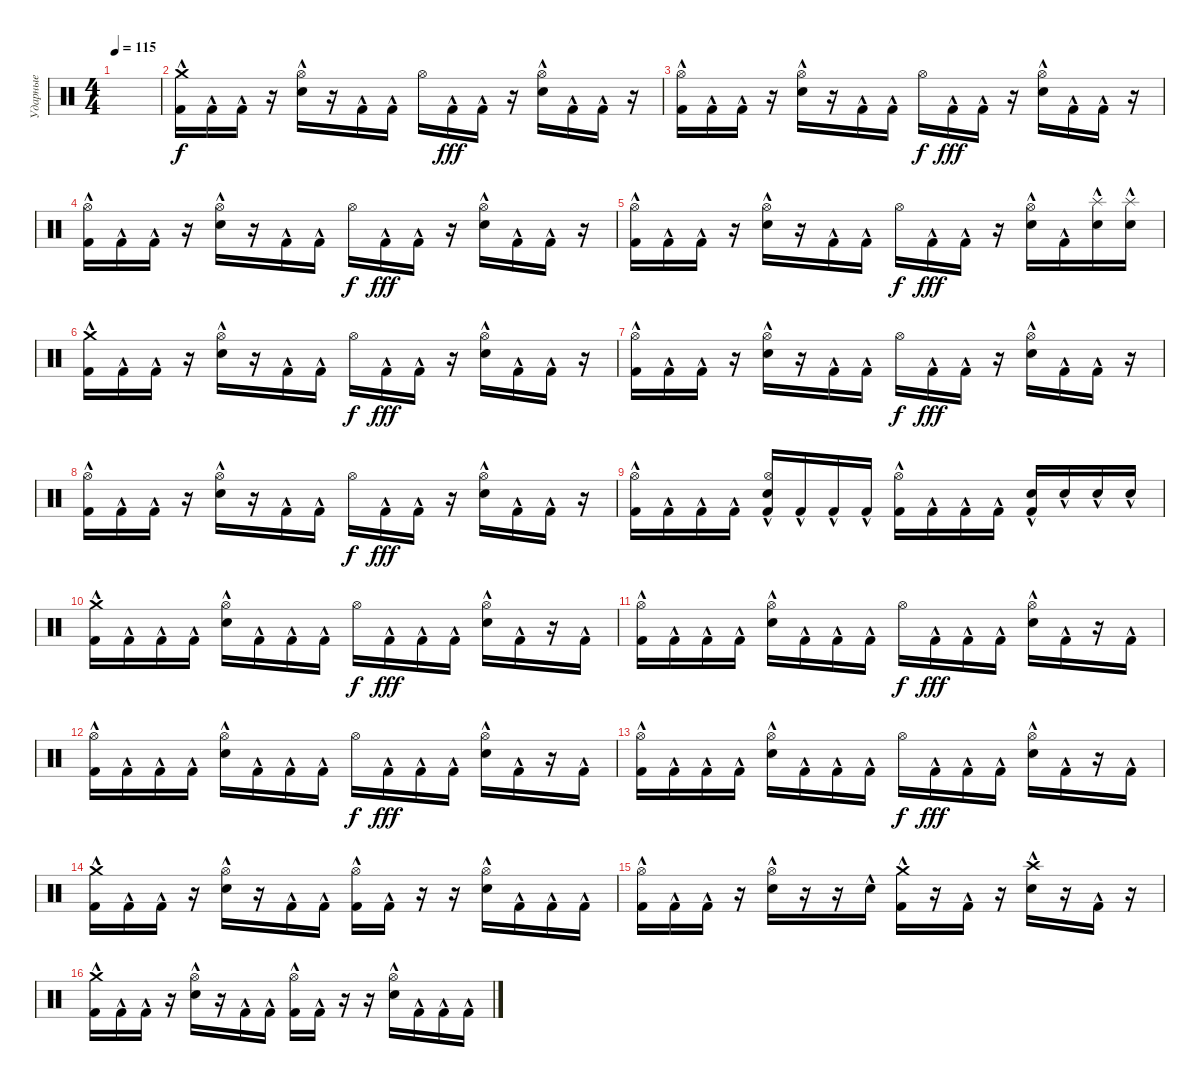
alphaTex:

\track ("Ударные" "Ударные") {instrument percussion}
\staff
\articulation defaults
\ts (4 4)
\tempo 115
\clef neutral
\ks c
|
("Crash medium (hit)" "Kick (hit) 2"{hac}).16 "Kick (hit) 2"{hac}.16 "Kick (hit) 2"{hac}.16 r.16 ("Hi-Hat (open)" "Snare (hit) 2"{hac}).16 r.16 "Kick (hit) 2"{hac}.16 "Kick (hit) 2"{hac}.16 "Hi-Hat (open)".16{dy f} "Kick (hit) 2"{hac}.16{dy fff} "Kick (hit) 2"{hac}.16 r.16 ("Hi-Hat (open)" "Snare (hit) 2"{hac}).16 "Kick (hit) 2"{hac}.16 "Kick (hit) 2"{hac}.16 r.16 |
("Hi-Hat (open)" "Kick (hit) 2"{hac}).16 "Kick (hit) 2"{hac}.16 "Kick (hit) 2"{hac}.16 r.16 ("Hi-Hat (open)" "Snare (hit) 2"{hac}).16 r.16 "Kick (hit) 2"{hac}.16 "Kick (hit) 2"{hac}.16 "Hi-Hat (open)".16{dy f} "Kick (hit) 2"{hac}.16{dy fff} "Kick (hit) 2"{hac}.16 r.16 ("Hi-Hat (open)" "Snare (hit) 2"{hac}).16 "Kick (hit) 2"{hac}.16 "Kick (hit) 2"{hac}.16 r.16 |
("Hi-Hat (open)" "Kick (hit) 2"{hac}).16 "Kick (hit) 2"{hac}.16 "Kick (hit) 2"{hac}.16 r.16 ("Hi-Hat (open)" "Snare (hit) 2"{hac}).16 r.16 "Kick (hit) 2"{hac}.16 "Kick (hit) 2"{hac}.16 "Hi-Hat (open)".16{dy f} "Kick (hit) 2"{hac}.16{dy fff} "Kick (hit) 2"{hac}.16 r.16 ("Hi-Hat (open)" "Snare (hit) 2"{hac}).16 "Kick (hit) 2"{hac}.16 "Kick (hit) 2"{hac}.16 r.16 |
("Hi-Hat (open)" "Kick (hit) 2"{hac}).16 "Kick (hit) 2"{hac}.16 "Kick (hit) 2"{hac}.16 r.16 ("Hi-Hat (open)" "Snare (hit) 2"{hac}).16 r.16 "Kick (hit) 2"{hac}.16 "Kick (hit) 2"{hac}.16 "Hi-Hat (open)".16{dy f} "Kick (hit) 2"{hac}.16{dy fff} "Kick (hit) 2"{hac}.16 r.16 ("Hi-Hat (open)" "Snare (hit) 2"{hac}).16 "Kick (hit) 2"{hac}.16 ("Splash (hit)" "Snare (hit) 2"{hac}).16 ("Splash (hit)" "Snare (hit) 2"{hac}).16 |
("Crash medium (hit)" "Kick (hit) 2"{hac}).16 "Kick (hit) 2"{hac}.16 "Kick (hit) 2"{hac}.16 r.16 ("Hi-Hat (open)" "Snare (hit) 2"{hac}).16 r.16 "Kick (hit) 2"{hac}.16 "Kick (hit) 2"{hac}.16 "Hi-Hat (open)".16{dy f} "Kick (hit) 2"{hac}.16{dy fff} "Kick (hit) 2"{hac}.16 r.16 ("Hi-Hat (open)" "Snare (hit) 2"{hac}).16 "Kick (hit) 2"{hac}.16 "Kick (hit) 2"{hac}.16 r.16 |
("Hi-Hat (open)" "Kick (hit) 2"{hac}).16 "Kick (hit) 2"{hac}.16 "Kick (hit) 2"{hac}.16 r.16 ("Hi-Hat (open)" "Snare (hit) 2"{hac}).16 r.16 "Kick (hit) 2"{hac}.16 "Kick (hit) 2"{hac}.16 "Hi-Hat (open)".16{dy f} "Kick (hit) 2"{hac}.16{dy fff} "Kick (hit) 2"{hac}.16 r.16 ("Hi-Hat (open)" "Snare (hit) 2"{hac}).16 "Kick (hit) 2"{hac}.16 "Kick (hit) 2"{hac}.16 r.16 |
("Hi-Hat (open)" "Kick (hit) 2"{hac}).16 "Kick (hit) 2"{hac}.16 "Kick (hit) 2"{hac}.16 r.16 ("Hi-Hat (open)" "Snare (hit) 2"{hac}).16 r.16 "Kick (hit) 2"{hac}.16 "Kick (hit) 2"{hac}.16 "Hi-Hat (open)".16{dy f} "Kick (hit) 2"{hac}.16{dy fff} "Kick (hit) 2"{hac}.16 r.16 ("Hi-Hat (open)" "Snare (hit) 2"{hac}).16 "Kick (hit) 2"{hac}.16 "Kick (hit) 2"{hac}.16 r.16 |
("Hi-Hat (open)" "Kick (hit) 2"{hac}).16 "Kick (hit) 2"{hac}.16 "Kick (hit) 2"{hac}.16 "Kick (hit) 2"{hac}.16 ("Hi-Hat (open)" "Snare (hit) 2"{hac} "Kick (hit) 2"{hac}).16 "Kick (hit) 2"{hac}.16 "Kick (hit) 2"{hac}.16 "Kick (hit) 2"{hac}.16 ("Hi-Hat (open)" "Kick (hit) 2"{hac}).16 "Kick (hit) 2"{hac}.16 "Kick (hit) 2"{hac}.16 "Kick (hit) 2"{hac}.16 ("Snare (hit) 2"{hac} "Kick (hit) 2"{hac}).16 "Snare (hit) 2"{hac}.16 "Snare (hit) 2"{hac}.16 "Snare (hit) 2"{hac}.16 |
("Crash medium (hit)" "Kick (hit) 2"{hac}).16 "Kick (hit) 2"{hac}.16 "Kick (hit) 2"{hac}.16 "Kick (hit) 2"{hac}.16 ("Hi-Hat (open)" "Snare (hit) 2"{hac}).16 "Kick (hit) 2"{hac}.16 "Kick (hit) 2"{hac}.16 "Kick (hit) 2"{hac}.16 "Hi-Hat (open)".16{dy f} "Kick (hit) 2"{hac}.16{dy fff} "Kick (hit) 2"{hac}.16 "Kick (hit) 2"{hac}.16 ("Hi-Hat (open)" "Snare (hit) 2"{hac}).16 "Kick (hit) 2"{hac}.16 r.16 "Kick (hit) 2"{hac}.16 |
("Hi-Hat (open)" "Kick (hit) 2"{hac}).16 "Kick (hit) 2"{hac}.16 "Kick (hit) 2"{hac}.16 "Kick (hit) 2"{hac}.16 ("Hi-Hat (open)" "Snare (hit) 2"{hac}).16 "Kick (hit) 2"{hac}.16 "Kick (hit) 2"{hac}.16 "Kick (hit) 2"{hac}.16 "Hi-Hat (open)".16{dy f} "Kick (hit) 2"{hac}.16{dy fff} "Kick (hit) 2"{hac}.16 "Kick (hit) 2"{hac}.16 ("Hi-Hat (open)" "Snare (hit) 2"{hac}).16 "Kick (hit) 2"{hac}.16 r.16 "Kick (hit) 2"{hac}.16 |
("Hi-Hat (open)" "Kick (hit) 2"{hac}).16 "Kick (hit) 2"{hac}.16 "Kick (hit) 2"{hac}.16 "Kick (hit) 2"{hac}.16 ("Hi-Hat (open)" "Snare (hit) 2"{hac}).16 "Kick (hit) 2"{hac}.16 "Kick (hit) 2"{hac}.16 "Kick (hit) 2"{hac}.16 "Hi-Hat (open)".16{dy f} "Kick (hit) 2"{hac}.16{dy fff} "Kick (hit) 2"{hac}.16 "Kick (hit) 2"{hac}.16 ("Hi-Hat (open)" "Snare (hit) 2"{hac}).16 "Kick (hit) 2"{hac}.16 r.16 "Kick (hit) 2"{hac}.16 |
("Hi-Hat (open)" "Kick (hit) 2"{hac}).16 "Kick (hit) 2"{hac}.16 "Kick (hit) 2"{hac}.16 "Kick (hit) 2"{hac}.16 ("Hi-Hat (open)" "Snare (hit) 2"{hac}).16 "Kick (hit) 2"{hac}.16 "Kick (hit) 2"{hac}.16 "Kick (hit) 2"{hac}.16 "Hi-Hat (open)".16{dy f} "Kick (hit) 2"{hac}.16{dy fff} "Kick (hit) 2"{hac}.16 "Kick (hit) 2"{hac}.16 ("Hi-Hat (open)" "Snare (hit) 2"{hac}).16 "Kick (hit) 2"{hac}.16 r.16 "Kick (hit) 2"{hac}.16 |
("Crash medium (hit)" "Kick (hit) 2"{hac}).16 "Kick (hit) 2"{hac}.16 "Kick (hit) 2"{hac}.16 r.16 ("Hi-Hat (open)" "Snare (hit) 2"{hac}).16 r.16 "Kick (hit) 2"{hac}.16 "Kick (hit) 2"{hac}.16 ("Hi-Hat (open)" "Kick (hit) 2"{hac}).16 "Kick (hit) 2"{hac}.16 r.16 r.16 ("Hi-Hat (open)" "Snare (hit) 2"{hac}).16 "Kick (hit) 2"{hac}.16 "Kick (hit) 2"{hac}.16 "Kick (hit) 2"{hac}.16 |
("Hi-Hat (open)" "Kick (hit) 2"{hac}).16 "Kick (hit) 2"{hac}.16 "Kick (hit) 2"{hac}.16 r.16 ("Hi-Hat (open)" "Snare (hit) 2"{hac}).16 r.16 r.16 "Snare (hit) 2"{hac}.16 ("Crash medium (hit)" "Kick (hit) 2"{hac}).16 r.16 "Kick (hit) 2"{hac}.16 r.16 ("Crash high (hit)" "Snare (hit) 2"{hac}).16 r.16 "Kick (hit) 2"{hac}.16 r.16 |
("Crash medium (hit)" "Kick (hit) 2"{hac}).16 "Kick (hit) 2"{hac}.16 "Kick (hit) 2"{hac}.16 r.16 ("Hi-Hat (open)" "Snare (hit) 2"{hac}).16 r.16 "Kick (hit) 2"{hac}.16 "Kick (hit) 2"{hac}.16 ("Hi-Hat (open)" "Kick (hit) 2"{hac}).16 "Kick (hit) 2"{hac}.16 r.16 r.16 ("Hi-Hat (open)" "Snare (hit) 2"{hac}).16 "Kick (hit) 2"{hac}.16 "Kick (hit) 2"{hac}.16 "Kick (hit) 2"{hac}.16
